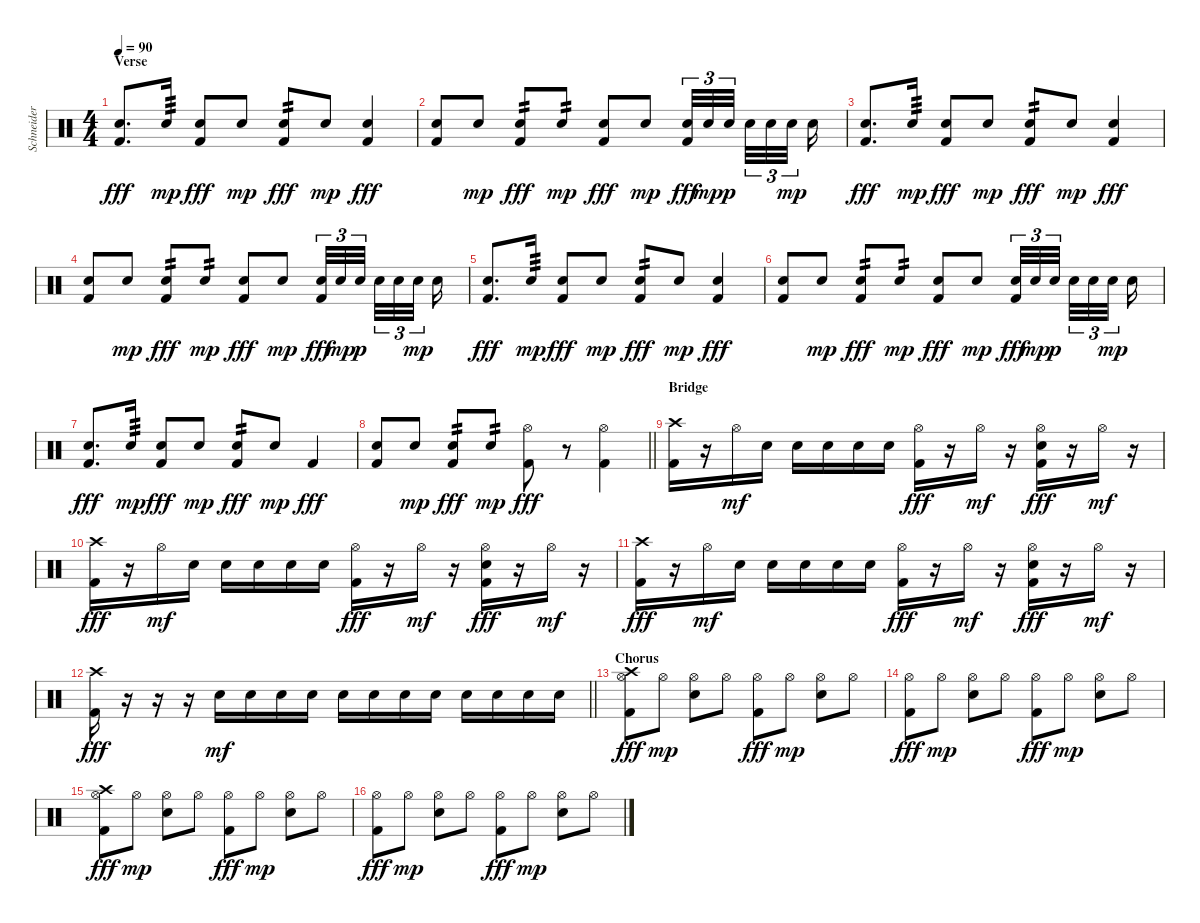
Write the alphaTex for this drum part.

\track ("Schneider" "Schneider") {instrument percussion}
\staff {score}
\articulation defaults
\ts (4 4)
\section ("" "Verse")
\tempo 90
\clef neutral
\ks c
("Electric Snare (hit)" "Kick (hit) 2").8{d dy fff} "Electric Snare (hit)".16{tp 3 dy mp} ("Electric Snare (hit)" "Kick (hit) 2").8{dy fff} "Electric Snare (hit)".8{dy mp} ("Electric Snare (hit)" "Kick (hit) 2").8{tp 2 dy fff} "Electric Snare (hit)".8{dy mp} ("Electric Snare (hit)" "Kick (hit) 2").4{dy fff} |
("Electric Snare (hit)" "Kick (hit) 2").8 "Electric Snare (hit)".8{dy mp} ("Electric Snare (hit)" "Kick (hit) 2").8{tp 2 dy fff} "Electric Snare (hit)".8{tp 2 dy mp} ("Electric Snare (hit)" "Kick (hit) 2").8{dy fff} "Electric Snare (hit)".8{dy mp} ("Electric Snare (hit)" "Kick (hit) 2").32{tu (3 2) dy fff} "Electric Snare (hit)".32{tu (3 2) dy mp} "Electric Snare (hit)".32{tu (3 2) dy p beam splitsecondary} "Electric Snare (hit)".32{tu (3 2)} "Electric Snare (hit)".32{tu (3 2)} "Electric Snare (hit)".32{tu (3 2) dy mp beam splitsecondary} "Electric Snare (hit)".16 |
("Electric Snare (hit)" "Kick (hit) 2").8{d dy fff} "Electric Snare (hit)".16{tp 3 dy mp} ("Electric Snare (hit)" "Kick (hit) 2").8{dy fff} "Electric Snare (hit)".8{dy mp} ("Electric Snare (hit)" "Kick (hit) 2").8{tp 2 dy fff} "Electric Snare (hit)".8{dy mp} ("Electric Snare (hit)" "Kick (hit) 2").4{dy fff} |
("Electric Snare (hit)" "Kick (hit) 2").8 "Electric Snare (hit)".8{dy mp} ("Electric Snare (hit)" "Kick (hit) 2").8{tp 2 dy fff} "Electric Snare (hit)".8{tp 2 dy mp} ("Electric Snare (hit)" "Kick (hit) 2").8{dy fff} "Electric Snare (hit)".8{dy mp} ("Electric Snare (hit)" "Kick (hit) 2").32{tu (3 2) dy fff} "Electric Snare (hit)".32{tu (3 2) dy mp} "Electric Snare (hit)".32{tu (3 2) dy p beam splitsecondary} "Electric Snare (hit)".32{tu (3 2)} "Electric Snare (hit)".32{tu (3 2)} "Electric Snare (hit)".32{tu (3 2) dy mp beam splitsecondary} "Electric Snare (hit)".16 |
("Electric Snare (hit)" "Kick (hit) 2").8{d dy fff} "Electric Snare (hit)".16{tp 3 dy mp} ("Electric Snare (hit)" "Kick (hit) 2").8{dy fff} "Electric Snare (hit)".8{dy mp} ("Electric Snare (hit)" "Kick (hit) 2").8{tp 2 dy fff} "Electric Snare (hit)".8{dy mp} ("Electric Snare (hit)" "Kick (hit) 2").4{dy fff} |
("Electric Snare (hit)" "Kick (hit) 2").8 "Electric Snare (hit)".8{dy mp} ("Electric Snare (hit)" "Kick (hit) 2").8{tp 2 dy fff} "Electric Snare (hit)".8{tp 2 dy mp} ("Electric Snare (hit)" "Kick (hit) 2").8{dy fff} "Electric Snare (hit)".8{dy mp} ("Electric Snare (hit)" "Kick (hit) 2").32{tu (3 2) dy fff} "Electric Snare (hit)".32{tu (3 2) dy mp} "Electric Snare (hit)".32{tu (3 2) dy p beam splitsecondary} "Electric Snare (hit)".32{tu (3 2)} "Electric Snare (hit)".32{tu (3 2)} "Electric Snare (hit)".32{tu (3 2) dy mp beam splitsecondary} "Electric Snare (hit)".16 |
("Electric Snare (hit)" "Kick (hit) 2").8{d dy fff} "Electric Snare (hit)".16{tp 3 dy mp} ("Electric Snare (hit)" "Kick (hit) 2").8{dy fff} "Electric Snare (hit)".8{dy mp} ("Electric Snare (hit)" "Kick (hit) 2").8{tp 2 dy fff} "Electric Snare (hit)".8{dy mp} "Kick (hit) 2".4{dy fff} |
\barLineRight lightlight
("Electric Snare (hit)" "Kick (hit) 2").8 "Electric Snare (hit)".8{dy mp} ("Electric Snare (hit)" "Kick (hit) 2").8{tp 2 dy fff} "Electric Snare (hit)".8{tp 2 dy mp} ("Hi-Hat (open)" "Kick (hit) 2").8{dy fff} r.8 ("Hi-Hat (open)" "Kick (hit) 2").4 |
\section ("" "Bridge")
("Crash high (hit)" "Kick (hit) 2").16 r.16 "Hi-Hat (open)".16{dy mf} "Electric Snare (hit)".16 "Electric Snare (hit)".16 "Electric Snare (hit)".16 "Electric Snare (hit)".16 "Electric Snare (hit)".16 ("Hi-Hat (open)" "Kick (hit) 2").16{dy fff} r.16 "Hi-Hat (open)".16{dy mf} r.16 ("Hi-Hat (open)" "Electric Snare (hit)" "Kick (hit) 2").16{dy fff} r.16 "Hi-Hat (open)".16{dy mf} r.16 |
("Crash high (hit)" "Kick (hit) 2").16{dy fff} r.16 "Hi-Hat (open)".16{dy mf} "Electric Snare (hit)".16 "Electric Snare (hit)".16 "Electric Snare (hit)".16 "Electric Snare (hit)".16 "Electric Snare (hit)".16 ("Hi-Hat (open)" "Kick (hit) 2").16{dy fff} r.16 "Hi-Hat (open)".16{dy mf} r.16 ("Hi-Hat (open)" "Electric Snare (hit)" "Kick (hit) 2").16{dy fff} r.16 "Hi-Hat (open)".16{dy mf} r.16 |
("Crash high (hit)" "Kick (hit) 2").16{dy fff} r.16 "Hi-Hat (open)".16{dy mf} "Electric Snare (hit)".16 "Electric Snare (hit)".16 "Electric Snare (hit)".16 "Electric Snare (hit)".16 "Electric Snare (hit)".16 ("Hi-Hat (open)" "Kick (hit) 2").16{dy fff} r.16 "Hi-Hat (open)".16{dy mf} r.16 ("Hi-Hat (open)" "Electric Snare (hit)" "Kick (hit) 2").16{dy fff} r.16 "Hi-Hat (open)".16{dy mf} r.16 |
\barLineRight lightlight
("Crash high (hit)" "Kick (hit) 2").16{dy fff} r.16 r.16 r.16 "Electric Snare (hit)".16{dy mf} "Electric Snare (hit)".16 "Electric Snare (hit)".16 "Electric Snare (hit)".16 "Electric Snare (hit)".16 "Electric Snare (hit)".16 "Electric Snare (hit)".16 "Electric Snare (hit)".16 "Electric Snare (hit)".16 "Electric Snare (hit)".16 "Electric Snare (hit)".16 "Electric Snare (hit)".16 |
\section ("" "Chorus")
("Crash high (hit)" "Hi-Hat (open)" "Kick (hit) 2").8{dy fff} "Hi-Hat (open)".8{dy mp} ("Hi-Hat (open)" "Electric Snare (hit)").8 "Hi-Hat (open)".8 ("Hi-Hat (open)" "Kick (hit) 2").8{dy fff} "Hi-Hat (open)".8{dy mp} ("Hi-Hat (open)" "Electric Snare (hit)").8 "Hi-Hat (open)".8 |
("Hi-Hat (open)" "Kick (hit) 2").8{dy fff} "Hi-Hat (open)".8{dy mp} ("Hi-Hat (open)" "Electric Snare (hit)").8 "Hi-Hat (open)".8 ("Hi-Hat (open)" "Kick (hit) 2").8{dy fff} "Hi-Hat (open)".8{dy mp} ("Hi-Hat (open)" "Electric Snare (hit)").8 "Hi-Hat (open)".8 |
("Crash high (hit)" "Hi-Hat (open)" "Kick (hit) 2").8{dy fff} "Hi-Hat (open)".8{dy mp} ("Hi-Hat (open)" "Electric Snare (hit)").8 "Hi-Hat (open)".8 ("Hi-Hat (open)" "Kick (hit) 2").8{dy fff} "Hi-Hat (open)".8{dy mp} ("Hi-Hat (open)" "Electric Snare (hit)").8 "Hi-Hat (open)".8 |
("Hi-Hat (open)" "Kick (hit) 2").8{dy fff} "Hi-Hat (open)".8{dy mp} ("Hi-Hat (open)" "Electric Snare (hit)").8 "Hi-Hat (open)".8 ("Hi-Hat (open)" "Kick (hit) 2").8{dy fff} "Hi-Hat (open)".8{dy mp} ("Hi-Hat (open)" "Electric Snare (hit)").8 "Hi-Hat (open)".8
